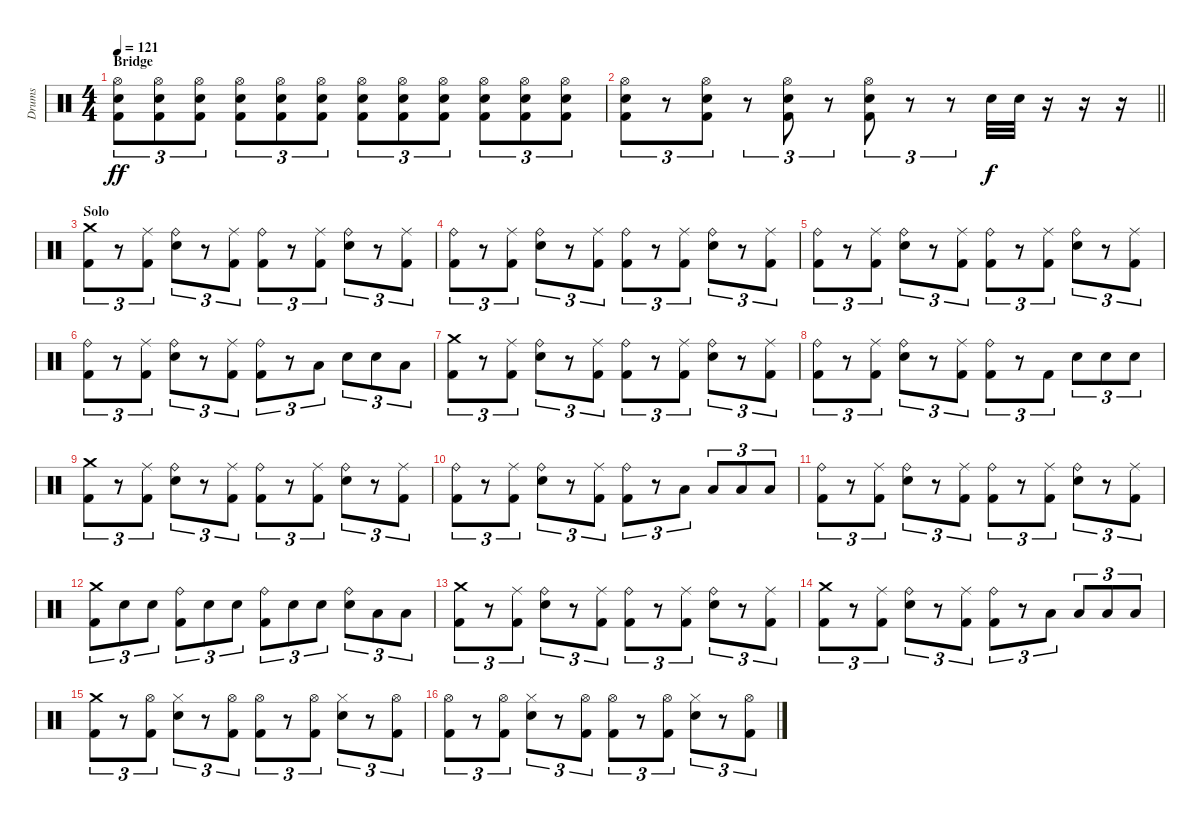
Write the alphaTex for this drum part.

\track ("Drums" "Drums") {instrument percussion}
\staff {score}
\articulation defaults
\ts (4 4)
\section ("" "Bridge")
\tempo 121
\clef neutral
\ks c
("Hi-Hat (open)" "Snare (hit) 2" "Kick (hit) 2").8{tu (3 2) dy ff} ("Hi-Hat (open)" "Snare (hit) 2" "Kick (hit) 2").8{tu (3 2)} ("Hi-Hat (open)" "Snare (hit) 2" "Kick (hit) 2").8{tu (3 2)} ("Hi-Hat (open)" "Snare (hit) 2" "Kick (hit) 2").8{tu (3 2)} ("Hi-Hat (open)" "Snare (hit) 2" "Kick (hit) 2").8{tu (3 2)} ("Hi-Hat (open)" "Snare (hit) 2" "Kick (hit) 2").8{tu (3 2)} ("Hi-Hat (open)" "Snare (hit) 2" "Kick (hit) 2").8{tu (3 2)} ("Hi-Hat (open)" "Snare (hit) 2" "Kick (hit) 2").8{tu (3 2)} ("Hi-Hat (open)" "Snare (hit) 2" "Kick (hit) 2").8{tu (3 2)} ("Hi-Hat (open)" "Snare (hit) 2" "Kick (hit) 2").8{tu (3 2)} ("Hi-Hat (open)" "Snare (hit) 2" "Kick (hit) 2").8{tu (3 2)} ("Hi-Hat (open)" "Snare (hit) 2" "Kick (hit) 2").8{tu (3 2)} |
\barLineRight lightlight
("Hi-Hat (open)" "Snare (hit) 2" "Kick (hit) 2").8{tu (3 2)} r.8{tu (3 2)} ("Hi-Hat (open)" "Snare (hit) 2" "Kick (hit) 2").8{tu (3 2)} r.8{tu (3 2)} ("Hi-Hat (open)" "Snare (hit) 2" "Kick (hit) 2").8{tu (3 2)} r.8{tu (3 2)} ("Hi-Hat (open)" "Snare (hit) 2" "Kick (hit) 2").8{tu (3 2)} r.8{tu (3 2)} r.8{tu (3 2)} "Snare (hit) 2".32{dy f} "Snare (hit) 2".32 r.16 r.16 r.16 |
\section ("" "Solo")
("Crash medium (hit)" "Kick (hit) 2").8{tu (3 2)} r.8{tu (3 2)} ("Ride (middle)" "Kick (hit) 2").8{tu (3 2)} ("Ride (bell)" "Snare (hit) 2").8{tu (3 2)} r.8{tu (3 2)} ("Ride (middle)" "Kick (hit) 2").8{tu (3 2)} ("Ride (bell)" "Kick (hit) 2").8{tu (3 2)} r.8{tu (3 2)} ("Ride (middle)" "Kick (hit) 2").8{tu (3 2)} ("Ride (bell)" "Snare (hit) 2").8{tu (3 2)} r.8{tu (3 2)} ("Ride (middle)" "Kick (hit) 2").8{tu (3 2)} |
("Ride (bell)" "Kick (hit) 2").8{tu (3 2)} r.8{tu (3 2)} ("Ride (middle)" "Kick (hit) 2").8{tu (3 2)} ("Ride (bell)" "Snare (hit) 2").8{tu (3 2)} r.8{tu (3 2)} ("Ride (middle)" "Kick (hit) 2").8{tu (3 2)} ("Ride (bell)" "Kick (hit) 2").8{tu (3 2)} r.8{tu (3 2)} ("Ride (middle)" "Kick (hit) 2").8{tu (3 2)} ("Ride (bell)" "Snare (hit) 2").8{tu (3 2)} r.8{tu (3 2)} ("Ride (middle)" "Kick (hit) 2").8{tu (3 2)} |
("Ride (bell)" "Kick (hit) 2").8{tu (3 2)} r.8{tu (3 2)} ("Ride (middle)" "Kick (hit) 2").8{tu (3 2)} ("Ride (bell)" "Snare (hit) 2").8{tu (3 2)} r.8{tu (3 2)} ("Ride (middle)" "Kick (hit) 2").8{tu (3 2)} ("Ride (bell)" "Kick (hit) 2").8{tu (3 2)} r.8{tu (3 2)} ("Ride (middle)" "Kick (hit) 2").8{tu (3 2)} ("Ride (bell)" "Snare (hit) 2").8{tu (3 2)} r.8{tu (3 2)} ("Ride (middle)" "Kick (hit) 2").8{tu (3 2)} |
("Ride (bell)" "Kick (hit) 2").8{tu (3 2)} r.8{tu (3 2)} ("Ride (middle)" "Kick (hit) 2").8{tu (3 2)} ("Ride (bell)" "Snare (hit) 2").8{tu (3 2)} r.8{tu (3 2)} ("Ride (middle)" "Kick (hit) 2").8{tu (3 2)} ("Ride (bell)" "Kick (hit) 2").8{tu (3 2)} r.8{tu (3 2)} "Low Tom (hit)".8{tu (3 2)} "Snare (hit) 2".8{tu (3 2)} "Snare (hit) 2".8{tu (3 2)} "Low Floor Tom (hit)".8{tu (3 2)} |
("Crash medium (hit)" "Kick (hit) 2").8{tu (3 2)} r.8{tu (3 2)} ("Ride (middle)" "Kick (hit) 2").8{tu (3 2)} ("Ride (bell)" "Snare (hit) 2").8{tu (3 2)} r.8{tu (3 2)} ("Ride (middle)" "Kick (hit) 2").8{tu (3 2)} ("Ride (bell)" "Kick (hit) 2").8{tu (3 2)} r.8{tu (3 2)} ("Ride (middle)" "Kick (hit) 2").8{tu (3 2)} ("Ride (bell)" "Snare (hit) 2").8{tu (3 2)} r.8{tu (3 2)} ("Ride (middle)" "Kick (hit) 2").8{tu (3 2)} |
("Ride (bell)" "Kick (hit) 2").8{tu (3 2)} r.8{tu (3 2)} ("Ride (middle)" "Kick (hit) 2").8{tu (3 2)} ("Ride (bell)" "Snare (hit) 2").8{tu (3 2)} r.8{tu (3 2)} ("Ride (middle)" "Kick (hit) 2").8{tu (3 2)} ("Ride (bell)" "Kick (hit) 2").8{tu (3 2)} r.8{tu (3 2)} "Kick (hit) 2".8{tu (3 2)} "Snare (hit) 2".8{tu (3 2)} "Snare (hit) 2".8{tu (3 2)} "Snare (hit) 2".8{tu (3 2)} |
("Crash medium (hit)" "Kick (hit) 2").8{tu (3 2)} r.8{tu (3 2)} ("Ride (middle)" "Kick (hit) 2").8{tu (3 2)} ("Ride (bell)" "Snare (hit) 2").8{tu (3 2)} r.8{tu (3 2)} ("Ride (middle)" "Kick (hit) 2").8{tu (3 2)} ("Ride (bell)" "Kick (hit) 2").8{tu (3 2)} r.8{tu (3 2)} ("Ride (middle)" "Kick (hit) 2").8{tu (3 2)} ("Ride (bell)" "Snare (hit) 2").8{tu (3 2)} r.8{tu (3 2)} ("Ride (middle)" "Kick (hit) 2").8{tu (3 2)} |
("Ride (bell)" "Kick (hit) 2").8{tu (3 2)} r.8{tu (3 2)} ("Ride (middle)" "Kick (hit) 2").8{tu (3 2)} ("Ride (bell)" "Snare (hit) 2").8{tu (3 2)} r.8{tu (3 2)} ("Ride (middle)" "Kick (hit) 2").8{tu (3 2)} ("Ride (bell)" "Kick (hit) 2").8{tu (3 2)} r.8{tu (3 2)} "Low Tom (hit)".8{tu (3 2)} "Low Floor Tom (hit)".8{tu (3 2)} "Low Floor Tom (hit)".8{tu (3 2)} "Low Floor Tom (hit)".8{tu (3 2)} |
("Ride (bell)" "Kick (hit) 2").8{tu (3 2)} r.8{tu (3 2)} ("Ride (middle)" "Kick (hit) 2").8{tu (3 2)} ("Ride (bell)" "Snare (hit) 2").8{tu (3 2)} r.8{tu (3 2)} ("Ride (middle)" "Kick (hit) 2").8{tu (3 2)} ("Ride (bell)" "Kick (hit) 2").8{tu (3 2)} r.8{tu (3 2)} ("Ride (middle)" "Kick (hit) 2").8{tu (3 2)} ("Ride (bell)" "Snare (hit) 2").8{tu (3 2)} r.8{tu (3 2)} ("Ride (middle)" "Kick (hit) 2").8{tu (3 2)} |
("Crash medium (hit)" "Kick (hit) 2").8{tu (3 2)} "Snare (hit) 2".8{tu (3 2)} "Snare (hit) 2".8{tu (3 2)} ("Ride (bell)" "Kick (hit) 2").8{tu (3 2)} "Snare (hit) 2".8{tu (3 2)} "Snare (hit) 2".8{tu (3 2)} ("Ride (bell)" "Kick (hit) 2").8{tu (3 2)} "Snare (hit) 2".8{tu (3 2)} "Snare (hit) 2".8{tu (3 2)} ("Ride (bell)" "Snare (hit) 2").8{tu (3 2)} "Low Tom (hit)".8{tu (3 2)} "Low Floor Tom (hit)".8{tu (3 2)} |
("Crash medium (hit)" "Kick (hit) 2").8{tu (3 2)} r.8{tu (3 2)} ("Ride (middle)" "Kick (hit) 2").8{tu (3 2)} ("Ride (bell)" "Snare (hit) 2").8{tu (3 2)} r.8{tu (3 2)} ("Ride (middle)" "Kick (hit) 2").8{tu (3 2)} ("Ride (bell)" "Kick (hit) 2").8{tu (3 2)} r.8{tu (3 2)} ("Ride (middle)" "Kick (hit) 2").8{tu (3 2)} ("Ride (bell)" "Snare (hit) 2").8{tu (3 2)} r.8{tu (3 2)} ("Ride (middle)" "Kick (hit) 2").8{tu (3 2)} |
("Crash medium (hit)" "Kick (hit) 2").8{tu (3 2)} r.8{tu (3 2)} ("Ride (middle)" "Kick (hit) 2").8{tu (3 2)} ("Ride (bell)" "Snare (hit) 2").8{tu (3 2)} r.8{tu (3 2)} ("Ride (middle)" "Kick (hit) 2").8{tu (3 2)} ("Ride (bell)" "Kick (hit) 2").8{tu (3 2)} r.8{tu (3 2)} "Low Tom (hit)".8{tu (3 2)} "Low Floor Tom (hit)".8{tu (3 2)} "Low Floor Tom (hit)".8{tu (3 2)} "Low Floor Tom (hit)".8{tu (3 2)} |
("Crash medium (hit)" "Kick (hit) 2").8{tu (3 2)} r.8{tu (3 2)} ("Hi-Hat (open)" "Kick (hit) 2").8{tu (3 2)} ("Hi-Hat (closed)" "Snare (hit) 2").8{tu (3 2)} r.8{tu (3 2)} ("Hi-Hat (open)" "Kick (hit) 2").8{tu (3 2)} ("Hi-Hat (open)" "Kick (hit) 2").8{tu (3 2)} r.8{tu (3 2)} ("Hi-Hat (open)" "Kick (hit) 2").8{tu (3 2)} ("Hi-Hat (closed)" "Snare (hit) 2").8{tu (3 2)} r.8{tu (3 2)} ("Hi-Hat (open)" "Kick (hit) 2").8{tu (3 2)} |
("Hi-Hat (open)" "Kick (hit) 2").8{tu (3 2)} r.8{tu (3 2)} ("Hi-Hat (open)" "Kick (hit) 2").8{tu (3 2)} ("Hi-Hat (closed)" "Snare (hit) 2").8{tu (3 2)} r.8{tu (3 2)} ("Hi-Hat (open)" "Kick (hit) 2").8{tu (3 2)} ("Hi-Hat (open)" "Kick (hit) 2").8{tu (3 2)} r.8{tu (3 2)} ("Hi-Hat (open)" "Kick (hit) 2").8{tu (3 2)} ("Hi-Hat (closed)" "Snare (hit) 2").8{tu (3 2)} r.8{tu (3 2)} ("Hi-Hat (open)" "Kick (hit) 2").8{tu (3 2)}
